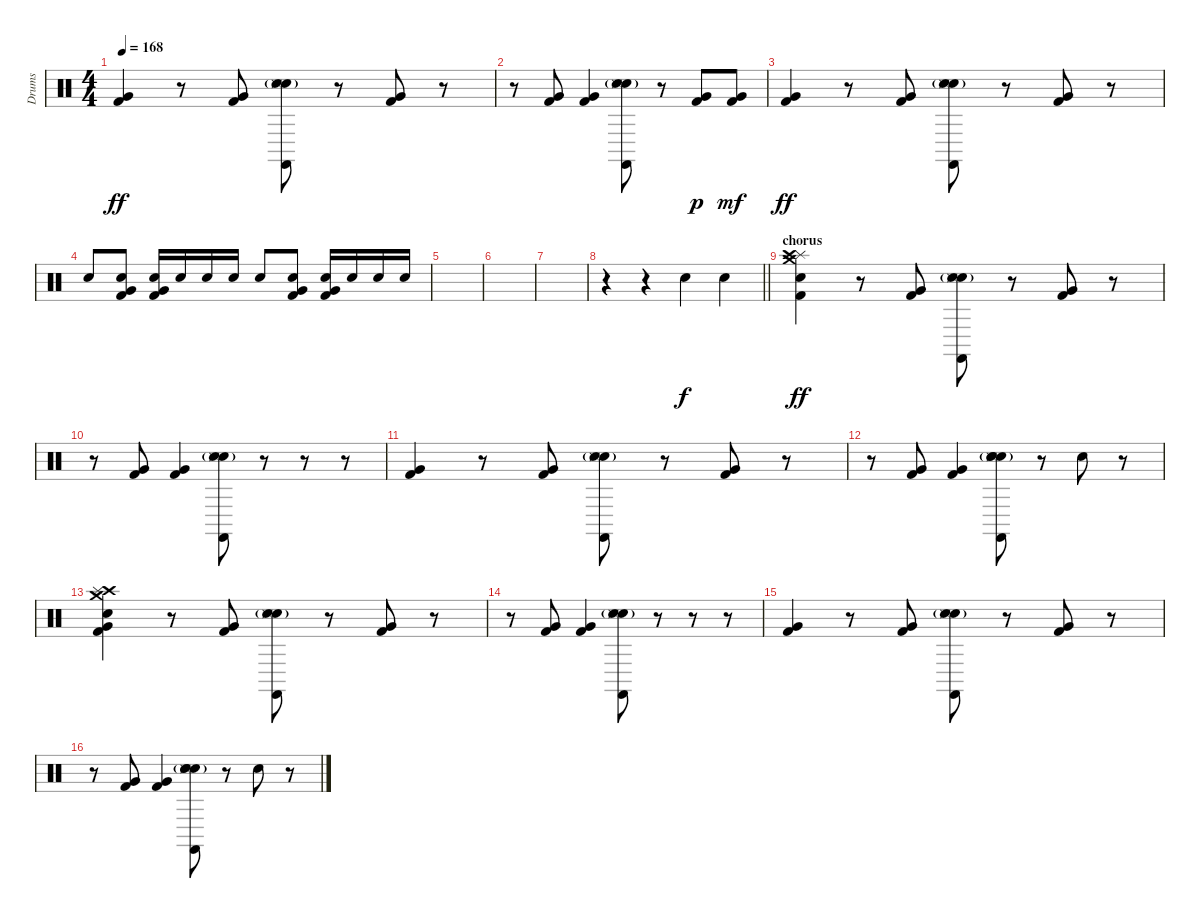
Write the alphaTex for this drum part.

\track ("Drums" "Drums") {instrument percussion}
\staff {score}
\articulation defaults
\ts (4 4)
\tempo 168
\clef neutral
\ks c
("Very Low Tom (hit)" "Kick (hit) 2").4{dy ff} r.8 ("Very Low Tom (hit)" "Kick (hit) 2").8 ("Snare (hit) 2" "Hand Clap (hit)"{g} "Castanets (hit)" "Snare (side stick) 3").8 r.8 ("Very Low Tom (hit)" "Kick (hit) 2").8 r.8 |
r.8 ("Very Low Tom (hit)" "Kick (hit) 2").8 ("Very Low Tom (hit)" "Kick (hit) 2").4 ("Snare (hit) 2" "Hand Clap (hit)"{g} "Castanets (hit)" "Snare (side stick) 3").8 r.8 ("Very Low Tom (hit)" "Kick (hit) 2").8{dy p} ("Very Low Tom (hit)" "Kick (hit) 2").8{dy mf} |
("Very Low Tom (hit)" "Kick (hit) 2").4{dy ff} r.8 ("Very Low Tom (hit)" "Kick (hit) 2").8 ("Snare (hit) 2" "Hand Clap (hit)"{g} "Castanets (hit)" "Snare (side stick) 3").8 r.8 ("Very Low Tom (hit)" "Kick (hit) 2").8 r.8 |
"Snare (hit) 2".8 ("Snare (hit) 2" "Very Low Tom (hit)" "Kick (hit) 2").8 ("Snare (hit) 2" "Very Low Tom (hit)" "Kick (hit) 2").16 "Snare (hit) 2".16 "Snare (hit) 2".16 "Snare (hit) 2".16 "Snare (hit) 2".8 ("Snare (hit) 2" "Very Low Tom (hit)" "Kick (hit) 2").8 ("Snare (hit) 2" "Very Low Tom (hit)" "Kick (hit) 2").16 "Snare (hit) 2".16 "Snare (hit) 2".16 "Snare (hit) 2".16 |
|
|
|
\barLineRight lightlight
r.4 r.4 "Hand Clap (hit)".4{dy f} "Hand Clap (hit)".4 |
\section ("" "chorus")
("Splash (hit)" "Hand Clap (hit)" "Crash high (hit)" "Crash medium (hit)" "Kick (hit) 2").4{dy ff} r.8 ("Very Low Tom (hit)" "Kick (hit) 2").8 ("Snare (hit) 2" "Hand Clap (hit)"{g} "Castanets (hit)" "Snare (side stick) 3").8 r.8 ("Very Low Tom (hit)" "Kick (hit) 2").8 r.8 |
r.8 ("Very Low Tom (hit)" "Kick (hit) 2").8 ("Very Low Tom (hit)" "Kick (hit) 2").4 ("Snare (hit) 2" "Hand Clap (hit)"{g} "Castanets (hit)" "Snare (side stick) 3").8 r.8 r.8 r.8 |
("Very Low Tom (hit)" "Kick (hit) 2").4 r.8 ("Very Low Tom (hit)" "Kick (hit) 2").8 ("Snare (hit) 2" "Hand Clap (hit)"{g} "Castanets (hit)" "Snare (side stick) 3").8 r.8 ("Very Low Tom (hit)" "Kick (hit) 2").8 r.8 |
r.8 ("Very Low Tom (hit)" "Kick (hit) 2").8 ("Very Low Tom (hit)" "Kick (hit) 2").4 ("Hand Clap (hit)" "Snare (hit) 2" "Hand Clap (hit)"{g} "Castanets (hit)" "Snare (side stick) 3").8 r.8 "Hand Clap (hit)".8 r.8 |
("Hand Clap (hit)" "Crash medium (hit)" "Crash high (hit)" "Splash (hit)" "Very Low Tom (hit)" "Kick (hit) 2").4 r.8 ("Very Low Tom (hit)" "Kick (hit) 2").8 ("Snare (hit) 2" "Hand Clap (hit)"{g} "Castanets (hit)" "Snare (side stick) 3").8 r.8 ("Very Low Tom (hit)" "Kick (hit) 2").8 r.8 |
r.8 ("Very Low Tom (hit)" "Kick (hit) 2").8 ("Very Low Tom (hit)" "Kick (hit) 2").4 ("Snare (hit) 2" "Hand Clap (hit)"{g} "Castanets (hit)" "Snare (side stick) 3").8 r.8 r.8 r.8 |
("Very Low Tom (hit)" "Kick (hit) 2").4 r.8 ("Very Low Tom (hit)" "Kick (hit) 2").8 ("Snare (hit) 2" "Hand Clap (hit)"{g} "Castanets (hit)" "Snare (side stick) 3").8 r.8 ("Very Low Tom (hit)" "Kick (hit) 2").8 r.8 |
r.8 ("Very Low Tom (hit)" "Kick (hit) 2").8 ("Very Low Tom (hit)" "Kick (hit) 2").4 ("Hand Clap (hit)" "Snare (hit) 2" "Hand Clap (hit)"{g} "Castanets (hit)" "Snare (side stick) 3").8 r.8 "Hand Clap (hit)".8 r.8
